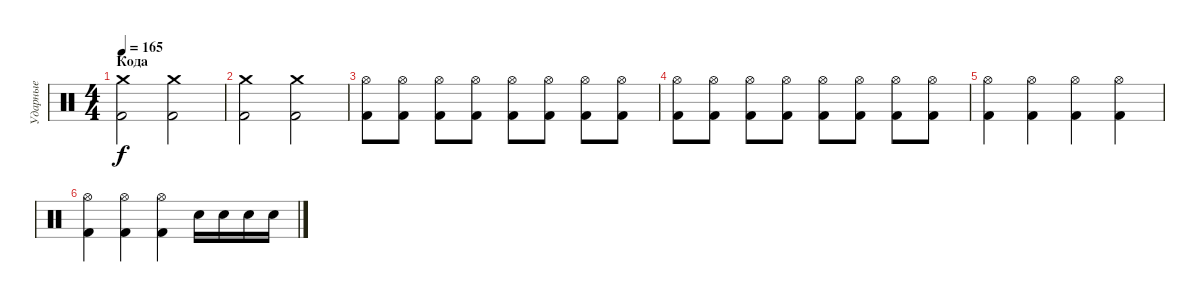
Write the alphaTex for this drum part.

\track ("Ударные" "Ударные") {instrument percussion}
\staff {score}
\articulation defaults
\ts (4 4)
\section ("" "Кода")
\tempo 165
\clef neutral
\ks c
("Crash medium (hit)" "Kick (hit) 2").2{dy f} ("Crash medium (hit)" "Kick (hit) 2").2 |
("Crash medium (hit)" "Kick (hit) 2").2 ("Crash medium (hit)" "Kick (hit) 2").2 |
("Hi-Hat (open)" "Kick (hit) 2").8 ("Hi-Hat (open)" "Kick (hit) 2").8 ("Hi-Hat (open)" "Kick (hit) 2").8 ("Hi-Hat (open)" "Kick (hit) 2").8 ("Hi-Hat (open)" "Kick (hit) 2").8 ("Hi-Hat (open)" "Kick (hit) 2").8 ("Hi-Hat (open)" "Kick (hit) 2").8 ("Hi-Hat (open)" "Kick (hit) 2").8 |
("Hi-Hat (open)" "Kick (hit) 2").8 ("Hi-Hat (open)" "Kick (hit) 2").8 ("Hi-Hat (open)" "Kick (hit) 2").8 ("Hi-Hat (open)" "Kick (hit) 2").8 ("Hi-Hat (open)" "Kick (hit) 2").8 ("Hi-Hat (open)" "Kick (hit) 2").8 ("Hi-Hat (open)" "Kick (hit) 2").8 ("Hi-Hat (open)" "Kick (hit) 2").8 |
("Hi-Hat (open)" "Kick (hit) 2").4 ("Hi-Hat (open)" "Kick (hit) 2").4 ("Hi-Hat (open)" "Kick (hit) 2").4 ("Hi-Hat (open)" "Kick (hit) 2").4 |
("Hi-Hat (open)" "Kick (hit) 2").4 ("Hi-Hat (open)" "Kick (hit) 2").4 ("Hi-Hat (open)" "Kick (hit) 2").4 "Snare (hit) 2".16 "Snare (hit) 2".16 "Snare (hit) 2".16 "Snare (hit) 2".16
